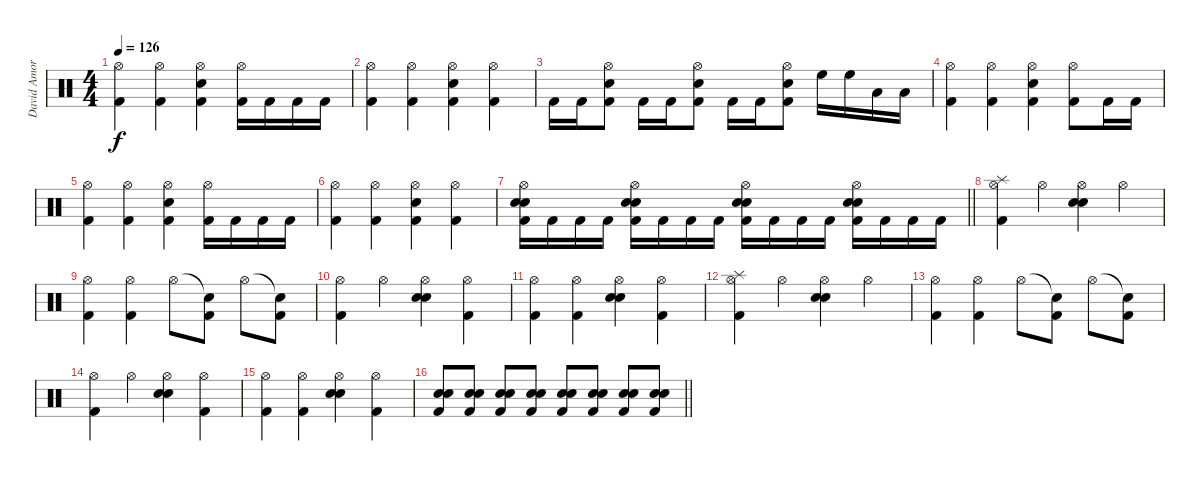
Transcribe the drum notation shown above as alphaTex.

\track ("David Amore" "David Amor") {instrument percussion}
\staff {score}
\articulation defaults
\ts (4 4)
\tempo 126
\clef neutral
\ks c
("Hi-Hat (open)" "Kick (hit) 2").4{dy f} ("Hi-Hat (open)" "Kick (hit) 2").4 ("Hi-Hat (open)" "Snare (hit) 2" "Kick (hit) 2").4 ("Hi-Hat (open)" "Kick (hit) 2").16 "Kick (hit) 2".16 "Kick (hit) 2".16 "Kick (hit) 2".16 |
("Hi-Hat (open)" "Kick (hit) 2").4 ("Hi-Hat (open)" "Kick (hit) 2").4 ("Hi-Hat (open)" "Snare (hit) 2" "Kick (hit) 2").4 ("Hi-Hat (open)" "Kick (hit) 2").4 |
"Kick (hit) 2".16 "Kick (hit) 2".16 ("Hi-Hat (open)" "Electric Snare (hit)" "Kick (hit) 2").8 "Kick (hit) 2".16 "Kick (hit) 2".16 ("Hi-Hat (open)" "Electric Snare (hit)" "Kick (hit) 2").8 "Kick (hit) 2".16 "Kick (hit) 2".16 ("Hi-Hat (open)" "Electric Snare (hit)" "Kick (hit) 2").8 "High Floor Tom (hit)".16 "High Floor Tom (hit)".16 "Low Tom (hit)".16 "Low Tom (hit)".16 |
("Hi-Hat (open)" "Kick (hit) 2").4 ("Hi-Hat (open)" "Kick (hit) 2").4 ("Hi-Hat (open)" "Snare (hit) 2" "Kick (hit) 2").4 ("Hi-Hat (open)" "Kick (hit) 2").8 "Kick (hit) 2".16 "Kick (hit) 2".16 |
("Hi-Hat (open)" "Kick (hit) 2").4 ("Hi-Hat (open)" "Kick (hit) 2").4 ("Hi-Hat (open)" "Snare (hit) 2" "Kick (hit) 2").4 ("Hi-Hat (open)" "Kick (hit) 2").16 "Kick (hit) 2".16 "Kick (hit) 2".16 "Kick (hit) 2".16 |
("Hi-Hat (open)" "Kick (hit) 2").4 ("Hi-Hat (open)" "Kick (hit) 2").4 ("Hi-Hat (open)" "Snare (hit) 2" "Kick (hit) 2").4 ("Hi-Hat (open)" "Kick (hit) 2").4 |
\barLineRight lightlight
("Hi-Hat (open)" "Electric Snare (hit)" "Snare (hit) 2" "Kick (hit) 2").16 "Kick (hit) 2".16 "Kick (hit) 2".16 "Kick (hit) 2".16 ("Hi-Hat (open)" "Electric Snare (hit)" "Snare (hit) 2" "Kick (hit) 2").16 "Kick (hit) 2".16 "Kick (hit) 2".16 "Kick (hit) 2".16 ("Hi-Hat (open)" "Electric Snare (hit)" "Snare (hit) 2" "Kick (hit) 2").16 "Kick (hit) 2".16 "Kick (hit) 2".16 "Kick (hit) 2".16 ("Hi-Hat (open)" "Electric Snare (hit)" "Snare (hit) 2" "Kick (hit) 2").16 "Kick (hit) 2".16 "Kick (hit) 2".16 "Kick (hit) 2".16 |
("Splash (hit)" "Hi-Hat (open)" "Kick (hit) 2").4 "Hi-Hat (open)".4 ("Hi-Hat (open)" "Electric Snare (hit)" "Snare (hit) 2").4 "Hi-Hat (open)".4 |
("Hi-Hat (open)" "Kick (hit) 2").4 ("Hi-Hat (open)" "Kick (hit) 2").4 "Hi-Hat (open)".8 ("Snare (hit)"{t} "Kick (hit) 2").8 "Hi-Hat (open)".8 ("Snare (hit)"{t} "Kick (hit) 2").8 |
("Hi-Hat (open)" "Kick (hit) 2").4 "Hi-Hat (open)".4 ("Hi-Hat (open)" "Electric Snare (hit)" "Snare (hit) 2").4 ("Hi-Hat (open)" "Kick (hit) 2").4 |
("Hi-Hat (open)" "Kick (hit) 2").4 ("Hi-Hat (open)" "Kick (hit) 2").4 ("Hi-Hat (open)" "Snare (hit) 2" "Electric Snare (hit)").4 ("Hi-Hat (open)" "Kick (hit) 2").4 |
("Splash (hit)" "Hi-Hat (open)" "Kick (hit) 2").4 "Hi-Hat (open)".4 ("Hi-Hat (open)" "Electric Snare (hit)" "Snare (hit) 2").4 "Hi-Hat (open)".4 |
("Hi-Hat (open)" "Kick (hit) 2").4 ("Hi-Hat (open)" "Kick (hit) 2").4 "Hi-Hat (open)".8 ("Snare (hit)"{t} "Kick (hit) 2").8 "Hi-Hat (open)".8 ("Snare (hit)"{t} "Kick (hit) 2").8 |
("Hi-Hat (open)" "Kick (hit) 2").4 "Hi-Hat (open)".4 ("Hi-Hat (open)" "Electric Snare (hit)" "Snare (hit) 2").4 ("Hi-Hat (open)" "Kick (hit) 2").4 |
("Hi-Hat (open)" "Kick (hit) 2").4 ("Hi-Hat (open)" "Kick (hit) 2").4 ("Hi-Hat (open)" "Snare (hit) 2" "Electric Snare (hit)").4 ("Hi-Hat (open)" "Kick (hit) 2").4 |
\barLineRight lightlight
("Electric Snare (hit)" "Snare (hit) 2" "Kick (hit) 2").8 ("Electric Snare (hit)" "Snare (hit) 2" "Kick (hit) 2").8 ("Electric Snare (hit)" "Snare (hit) 2" "Kick (hit) 2").8 ("Electric Snare (hit)" "Snare (hit) 2" "Kick (hit) 2").8 ("Electric Snare (hit)" "Snare (hit) 2" "Kick (hit) 2").8 ("Electric Snare (hit)" "Snare (hit) 2" "Kick (hit) 2").8 ("Electric Snare (hit)" "Snare (hit) 2" "Kick (hit) 2").8 ("Electric Snare (hit)" "Snare (hit) 2" "Kick (hit) 2").8
